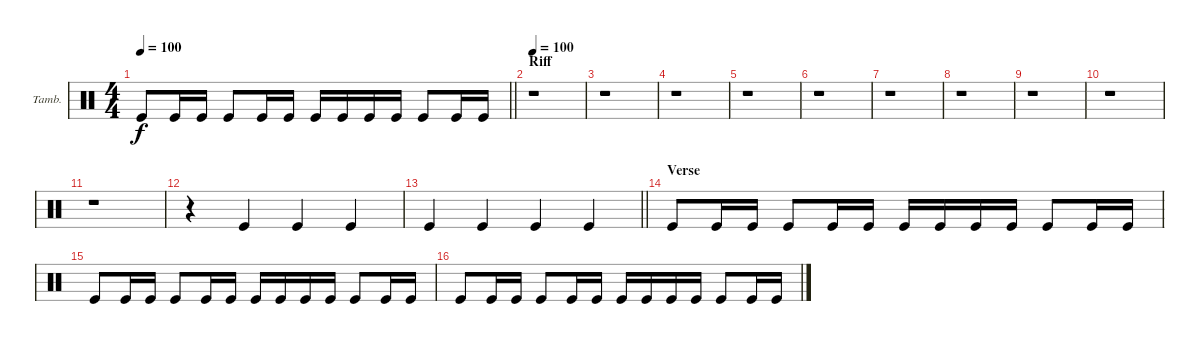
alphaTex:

\bracketExtendMode groupsimilarinstruments
\firstSystemTrackNameOrientation horizontal
\otherSystemsTrackNameOrientation horizontal
\track ("Tambourine" "Tamb.") {instrument percussion}
\staff {score}
\articulation defaults
\ts (4 4)
\tempo 100
\clef neutral
\barLineRight lightlight
\ks c "Kick (hit)".8{dy f} "Kick (hit)".16 "Kick (hit)".16 "Kick (hit)".8 "Kick (hit)".16 "Kick (hit)".16 "Kick (hit)".16 "Kick (hit)".16 "Kick (hit)".16 "Kick (hit)".16 "Kick (hit)".8 "Kick (hit)".16 "Kick (hit)".16
|
\section ("" "Riff")
\tempo 100
r.1 |
r.1 |
r.1 |
r.1 |
r.1 |
r.1 |
r.1 |
r.1 |
r.1 |
r.1 |
r.4 "Kick (hit)".4 "Kick (hit)".4 "Kick (hit)".4 |
\barLineRight lightlight "Kick (hit)".4 "Kick (hit)".4 "Kick (hit)".4 "Kick (hit)".4
|
\section ("" "Verse")
"Kick (hit)".8 "Kick (hit)".16 "Kick (hit)".16 "Kick (hit)".8 "Kick (hit)".16 "Kick (hit)".16 "Kick (hit)".16 "Kick (hit)".16 "Kick (hit)".16 "Kick (hit)".16 "Kick (hit)".8 "Kick (hit)".16 "Kick (hit)".16 |
"Kick (hit)".8 "Kick (hit)".16 "Kick (hit)".16 "Kick (hit)".8 "Kick (hit)".16 "Kick (hit)".16 "Kick (hit)".16 "Kick (hit)".16 "Kick (hit)".16 "Kick (hit)".16 "Kick (hit)".8 "Kick (hit)".16 "Kick (hit)".16 |
"Kick (hit)".8 "Kick (hit)".16 "Kick (hit)".16 "Kick (hit)".8 "Kick (hit)".16 "Kick (hit)".16 "Kick (hit)".16 "Kick (hit)".16 "Kick (hit)".16 "Kick (hit)".16 "Kick (hit)".8 "Kick (hit)".16 "Kick (hit)".16
